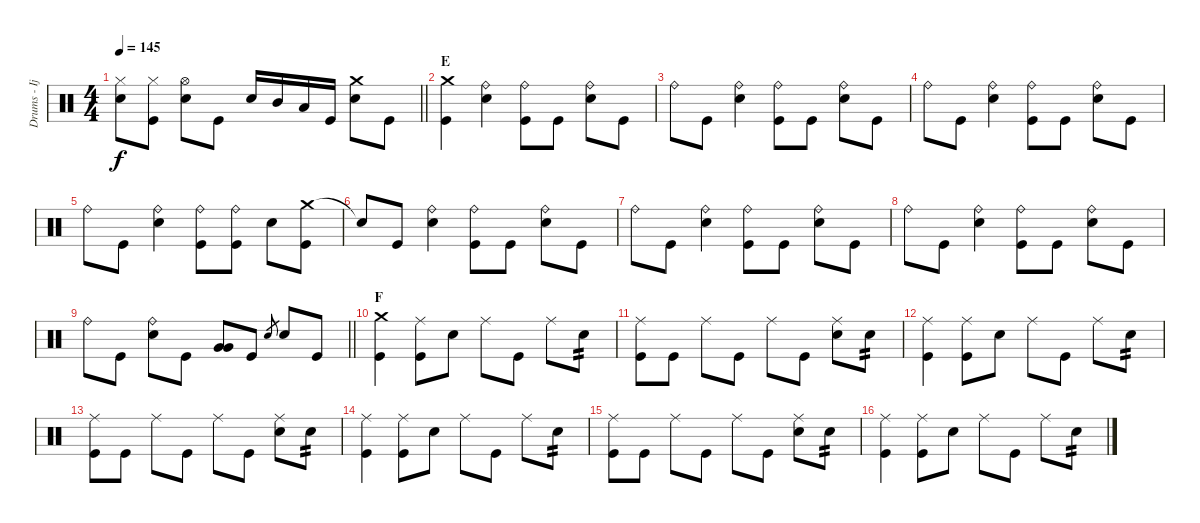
\track ("Drums - Ijichi" "Drums - Ij") {instrument percussion}
\staff {score}
\articulation defaults
\ts (4 4)
\tempo 145
\clef neutral
\barLineRight lightlight
\ks c
("Hi-Hat (closed)" "Electric Snare (hit)").8{dy f} ("Hi-Hat (closed)" "Kick (hit)").8 ("Hi-Hat (open)" "Electric Snare (hit)").8 "Kick (hit)".8 "Electric Snare (hit)".16 "Mid Tom (hit)".16 "Low Tom (hit)".16 "Kick (hit)".16 ("Crash medium (hit)" "Electric Snare (hit)").8 "Kick (hit)".8 |
\section ("" "E")
("Crash medium (hit)" "Kick (hit)").4 ("Ride (bell)" "Electric Snare (hit)").4 ("Ride (bell)" "Kick (hit)").8 "Kick (hit)".8 ("Ride (bell)" "Electric Snare (hit)").8 "Kick (hit)".8 |
"Ride (bell)".8 "Kick (hit)".8 ("Ride (bell)" "Electric Snare (hit)").4 ("Ride (bell)" "Kick (hit)").8 "Kick (hit)".8 ("Ride (bell)" "Electric Snare (hit)").8 "Kick (hit)".8 |
"Ride (bell)".8 "Kick (hit)".8 ("Ride (bell)" "Electric Snare (hit)").4 ("Ride (bell)" "Kick (hit)").8 "Kick (hit)".8 ("Ride (bell)" "Electric Snare (hit)").8 "Kick (hit)".8 |
"Ride (bell)".8 "Kick (hit)".8 ("Ride (bell)" "Electric Snare (hit)").4 ("Ride (bell)" "Kick (hit)").8 ("Ride (bell)" "Kick (hit)").8 "Electric Snare (hit)".8 ("Crash medium (hit)" "Kick (hit)").8 |
"Snare (hit)"{t}.8 "Kick (hit)".8 ("Ride (bell)" "Electric Snare (hit)").4 ("Ride (bell)" "Kick (hit)").8 "Kick (hit)".8 ("Ride (bell)" "Electric Snare (hit)").8 "Kick (hit)".8 |
"Ride (bell)".8 "Kick (hit)".8 ("Ride (bell)" "Electric Snare (hit)").4 ("Ride (bell)" "Kick (hit)").8 "Kick (hit)".8 ("Ride (bell)" "Electric Snare (hit)").8 "Kick (hit)".8 |
"Ride (bell)".8 "Kick (hit)".8 ("Ride (bell)" "Electric Snare (hit)").4 ("Ride (bell)" "Kick (hit)").8 "Kick (hit)".8 ("Ride (bell)" "Electric Snare (hit)").8 "Kick (hit)".8 |
\barLineRight lightlight "Ride (bell)".8 "Kick (hit)".8
("Ride (bell)" "Electric Snare (hit)").8 "Kick (hit)".8 ("Very Low Tom (hit)" "Very Low Tom (hit)").8 "Kick (hit)".8 "Electric Snare (hit)".8{gr} "Electric Snare (hit)".8 "Kick (hit)".8 |
\section ("" "F")
("Crash medium (hit)" "Kick (hit)").4 ("Ride (middle)" "Kick (hit)").8 "Electric Snare (hit)".8 "Ride (middle)".8 "Kick (hit)".8 "Ride (middle)".8 "Electric Snare (hit)".8{tp 2} |
("Ride (middle)" "Kick (hit)").8 "Kick (hit)".8 "Ride (middle)".8 "Kick (hit)".8 "Ride (middle)".8 "Kick (hit)".8 ("Ride (middle)" "Electric Snare (hit)").8 "Electric Snare (hit)".8{tp 2} |
("Ride (middle)" "Kick (hit)").4 ("Ride (middle)" "Kick (hit)").8 "Electric Snare (hit)".8 "Ride (middle)".8 "Kick (hit)".8 "Ride (middle)".8 "Electric Snare (hit)".8{tp 2} |
("Ride (middle)" "Kick (hit)").8 "Kick (hit)".8 "Ride (middle)".8 "Kick (hit)".8 "Ride (middle)".8 "Kick (hit)".8 ("Ride (middle)" "Electric Snare (hit)").8 "Electric Snare (hit)".8{tp 2} |
("Ride (middle)" "Kick (hit)").4 ("Ride (middle)" "Kick (hit)").8 "Electric Snare (hit)".8 "Ride (middle)".8 "Kick (hit)".8 "Ride (middle)".8 "Electric Snare (hit)".8{tp 2} |
("Ride (middle)" "Kick (hit)").8 "Kick (hit)".8 "Ride (middle)".8 "Kick (hit)".8 "Ride (middle)".8 "Kick (hit)".8 ("Ride (middle)" "Electric Snare (hit)").8 "Electric Snare (hit)".8{tp 2} |
("Ride (middle)" "Kick (hit)").4 ("Ride (middle)" "Kick (hit)").8 "Electric Snare (hit)".8 "Ride (middle)".8 "Kick (hit)".8 "Ride (middle)".8 "Electric Snare (hit)".8{tp 2}
